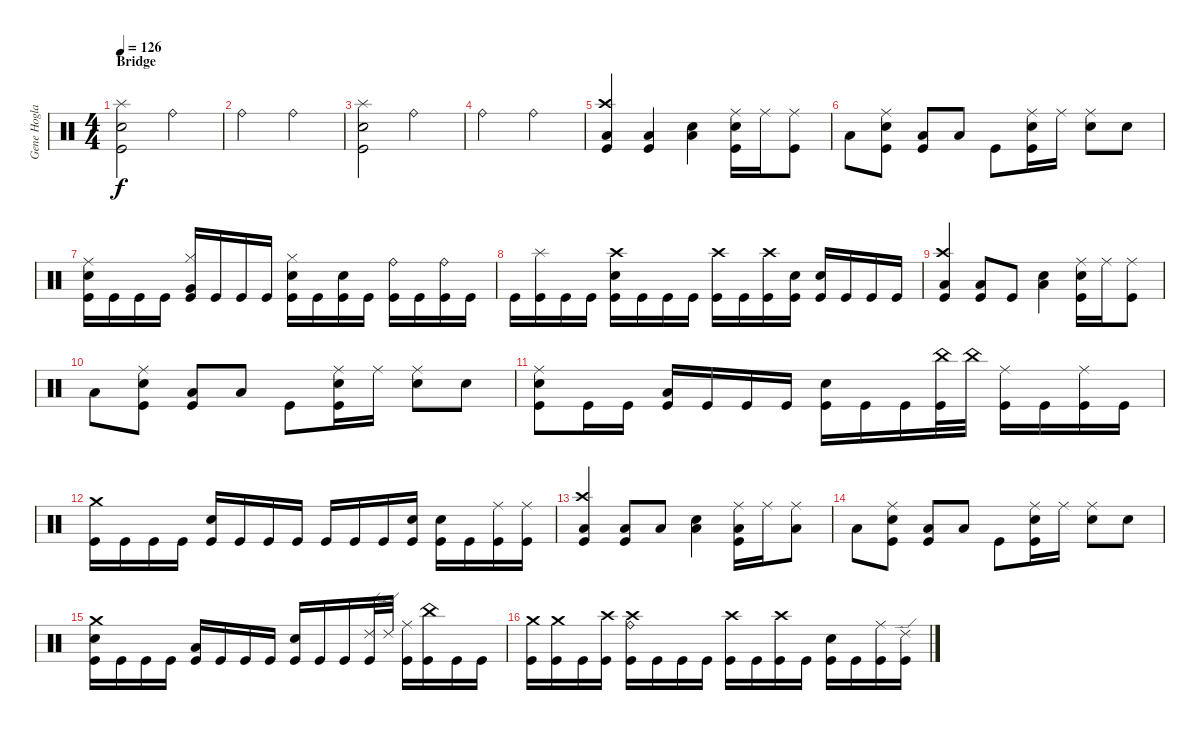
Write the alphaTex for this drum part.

\track ("Gene Hoglan " "Gene Hogla") {instrument percussion}
\staff {score}
\articulation defaults
\ts (4 4)
\section ("" "Bridge")
\tempo 126
\clef neutral
\ks c
("Splash (hit)" "Snare (hit) 2" "Kick (hit)").2{dy f} "Ride (bell)".2 |
"Ride (bell)".2 "Ride (bell)".2 |
("Splash (hit)" "Snare (hit) 2" "Kick (hit)").2 "Ride (bell)".2 |
"Ride (bell)".2 "Ride (bell)".2 |
("Crash high (hit)" "Low Floor Tom (hit)" "Kick (hit)").4 ("Low Floor Tom (hit)" "Kick (hit)").4 ("Low Floor Tom (hit)" "Snare (hit) 2").4 ("Ride (middle)" "Snare (hit) 2" "Kick (hit)").16 "Ride (middle)".16 ("Ride (middle)" "Kick (hit)").8 |
"Low Floor Tom (hit)".8 ("Ride (middle)" "Snare (hit) 2" "Kick (hit)").8 ("Low Floor Tom (hit)" "Kick (hit)").8 "Low Floor Tom (hit)".8 "Kick (hit)".8 ("Ride (middle)" "Snare (hit) 2" "Kick (hit)").16 "Ride (middle)".16 ("Ride (middle)" "Snare (hit) 2").8 "Snare (hit) 2".8 |
("Ride (middle)" "Snare (hit) 2" "Kick (hit)").16 "Kick (hit)".16 "Kick (hit)".16 "Kick (hit)".16 ("Hi-Hat (closed)" "Very Low Tom (hit)" "Kick (hit)").16 "Kick (hit)".16 "Kick (hit)".16 "Kick (hit)".16 ("Hi-Hat (closed)" "Snare (hit) 2" "Kick (hit)").16 "Kick (hit)".16 ("Snare (hit) 2" "Kick (hit)").16 "Kick (hit)".16 ("Ride (bell)" "Kick (hit)").16 "Kick (hit)".16 ("Ride (bell)" "Kick (hit)").16 "Kick (hit)".16 |
"Kick (hit)".16 ("Splash (hit)" "Kick (hit)").16 "Kick (hit)".16 "Kick (hit)".16 ("Crash high (hit)" "Snare (hit) 2" "Kick (hit)").16 "Kick (hit)".16 "Kick (hit)".16 "Kick (hit)".16 ("Crash high (hit)" "Kick (hit)").16 "Kick (hit)".16 ("Crash high (hit)" "Kick (hit)").16 ("Snare (hit) 2" "Kick (hit)").16 ("Snare (hit) 2" "Kick (hit)").16 "Kick (hit)".16 "Kick (hit)".16 "Kick (hit)".16 |
("Crash high (hit)" "Low Floor Tom (hit)" "Kick (hit)").4 ("Low Floor Tom (hit)" "Kick (hit)").8 "Kick (hit)".8 ("Snare (hit) 2" "Low Floor Tom (hit)").4 ("Ride (middle)" "Snare (hit) 2" "Kick (hit)").16 "Ride (middle)".16 ("Ride (middle)" "Kick (hit)").8 |
"Low Floor Tom (hit)".8 ("Ride (middle)" "Snare (hit) 2" "Kick (hit)").8 ("Low Floor Tom (hit)" "Kick (hit)").8 "Low Floor Tom (hit)".8 "Kick (hit)".8 ("Ride (middle)" "Snare (hit) 2" "Kick (hit)").16 "Ride (middle)".16 ("Ride (middle)" "Snare (hit) 2").8 "Snare (hit) 2".8 |
("Ride (middle)" "Snare (hit) 2" "Kick (hit)").8 "Kick (hit)".16 "Kick (hit)".16 ("Low Tom (hit)" "Kick (hit)").16 "Kick (hit)".16 "Kick (hit)".16 "Kick (hit)".16 ("Snare (hit) 2" "Kick (hit)").16 "Kick (hit)".16 "Kick (hit)".16 ("China (hit)" "Kick (hit)").32 "China (hit)".32 ("Ride (middle)" "Kick (hit)").16 "Kick (hit)".16 ("Ride (middle)" "Kick (hit)").16 "Kick (hit)".16 |
("Crash medium (hit)" "Kick (hit)").16 "Kick (hit)".16 "Kick (hit)".16 "Kick (hit)".16 ("Snare (hit) 2" "Kick (hit)").16 "Kick (hit)".16 "Kick (hit)".16 "Kick (hit)".16 "Kick (hit)".16 "Kick (hit)".16 "Kick (hit)".16 ("Snare (hit) 2" "Kick (hit)").16 ("Snare (hit) 2" "Kick (hit)").16 "Kick (hit)".16 ("Ride (middle)" "Kick (hit)").16 ("Ride (middle)" "Kick (hit)").16 |
("Crash high (hit)" "Low Floor Tom (hit)" "Kick (hit)").4 ("Low Floor Tom (hit)" "Kick (hit)").8 "Low Floor Tom (hit)".8 ("Snare (hit) 2" "Low Floor Tom (hit)").4 ("Ride (middle)" "Low Floor Tom (hit)" "Kick (hit)").16 "Ride (middle)".16 ("Ride (middle)" "Low Floor Tom (hit)").8 |
"Low Floor Tom (hit)".8 ("Ride (middle)" "Snare (hit) 2" "Kick (hit)").8 ("Low Floor Tom (hit)" "Kick (hit)").8 "Low Floor Tom (hit)".8 "Kick (hit)".8 ("Ride (middle)" "Snare (hit) 2" "Kick (hit)").16 "Ride (middle)".16 ("Ride (middle)" "Snare (hit) 2").8 "Snare (hit) 2".8 |
("Crash medium (hit)" "Snare (hit) 2" "Kick (hit)").16 "Kick (hit)".16 "Kick (hit)".16 "Kick (hit)".16 ("Low Tom (hit)" "Kick (hit)").16 "Kick (hit)".16 "Kick (hit)".16 "Kick (hit)".16 ("Snare (hit) 2" "Kick (hit)").16 "Kick (hit)".16 "Kick (hit)".16 ("Ride (edge) 2" "Kick (hit)").32 "Ride (edge) 2".32 ("Ride (middle)" "Kick (hit)").16 ("China (hit)" "Kick (hit)").16 "Kick (hit)".16 "Kick (hit)".16 |
("Crash medium (hit)" "Kick (hit)").16 ("Crash medium (hit)" "Kick (hit)").16 "Kick (hit)".16 ("Crash high (hit)" "Kick (hit)").16 ("Crash high (hit)" "Ride (bell)" "Kick (hit)").16 "Kick (hit)".16 "Kick (hit)".16 "Kick (hit)".16 ("Crash high (hit)" "Kick (hit)").16 "Kick (hit)".16 ("Crash high (hit)" "Kick (hit)").16 "Kick (hit)".16 ("Snare (hit) 2" "Kick (hit)").16 "Kick (hit)".16 ("Ride (middle)" "Kick (hit)").16 ("Ride (edge) 2" "Kick (hit)").16
